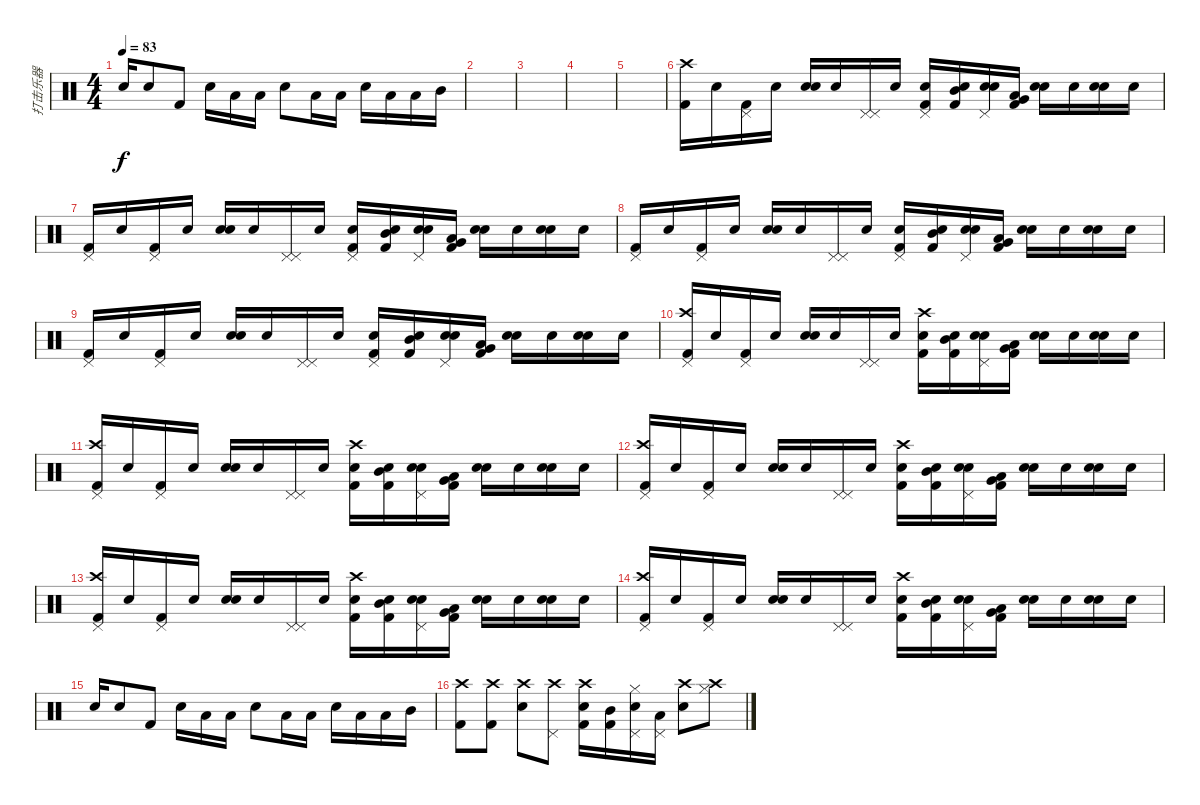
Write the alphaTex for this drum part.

\track ("打击乐器" "打击乐器") {instrument percussion}
\staff {score}
\articulation defaults
\ts (4 4)
\tempo 83
\clef neutral
\ks c "Snare (hit) 2".16{dy f} "Electric Snare (hit)".8 "Kick (hit) 2".8 "Electric Snare (hit)".16 "Low Floor Tom (hit)".16 "Low Floor Tom (hit)".16 "Electric Snare (hit)".8 "Low Tom (hit)".16 "Low Floor Tom (hit)".16 "Electric Snare (hit)".16 "Low Floor Tom (hit)".16 "Low Floor Tom (hit)".16 "Mid Tom (hit)".16
|
|
|
|
|
("Kick (hit) 2" "Crash high (hit)").16 "Snare (hit)".16 ("Kick (hit) 2" "Pedal Hi-Hat (hit)").16 "Snare (hit)".16 ("Snare (hit)" "Electric Snare (hit)").16 "Snare (hit)".16 ("Pedal Hi-Hat (hit)" "Pedal Hi-Hat (hit)").16 "Snare (hit)".16 ("Snare (hit)" "Pedal Hi-Hat (hit)" "Kick (hit) 2").16 ("Snare (hit)" "Mid Tom (hit)" "Kick (hit) 2").16 ("Snare (hit)" "Electric Snare (hit)" "Pedal Hi-Hat (hit)").16 ("Very Low Tom (hit)" "Kick (hit) 2" "Low Floor Tom (hit)").16 ("Snare (hit)" "Electric Snare (hit)").16 "Snare (hit)".16 ("Snare (hit)" "Electric Snare (hit)").16 "Snare (hit)".16 |
("Kick (hit) 2" "Pedal Hi-Hat (hit)").16 "Snare (hit)".16 ("Kick (hit) 2" "Pedal Hi-Hat (hit)").16 "Snare (hit)".16 ("Snare (hit)" "Electric Snare (hit)").16 "Snare (hit)".16 ("Pedal Hi-Hat (hit)" "Pedal Hi-Hat (hit)").16 "Snare (hit)".16 ("Snare (hit)" "Pedal Hi-Hat (hit)" "Kick (hit) 2").16 ("Snare (hit)" "Mid Tom (hit)" "Kick (hit) 2").16 ("Snare (hit)" "Electric Snare (hit)" "Pedal Hi-Hat (hit)").16 ("Very Low Tom (hit)" "Kick (hit) 2" "Low Floor Tom (hit)").16 ("Snare (hit)" "Electric Snare (hit)").16 "Snare (hit)".16 ("Snare (hit)" "Electric Snare (hit)").16 "Snare (hit)".16 |
("Kick (hit) 2" "Pedal Hi-Hat (hit)").16 "Snare (hit)".16 ("Kick (hit) 2" "Pedal Hi-Hat (hit)").16 "Snare (hit)".16 ("Snare (hit)" "Electric Snare (hit)").16 "Snare (hit)".16 ("Pedal Hi-Hat (hit)" "Pedal Hi-Hat (hit)").16 "Snare (hit)".16 ("Snare (hit)" "Pedal Hi-Hat (hit)" "Kick (hit) 2").16 ("Snare (hit)" "Mid Tom (hit)" "Kick (hit) 2").16 ("Snare (hit)" "Electric Snare (hit)" "Pedal Hi-Hat (hit)").16 ("Very Low Tom (hit)" "Kick (hit) 2" "Low Floor Tom (hit)").16 ("Snare (hit)" "Electric Snare (hit)").16 "Snare (hit)".16 ("Snare (hit)" "Electric Snare (hit)").16 "Snare (hit)".16 |
("Kick (hit) 2" "Pedal Hi-Hat (hit)").16 "Snare (hit)".16 ("Kick (hit) 2" "Pedal Hi-Hat (hit)").16 "Snare (hit)".16 ("Snare (hit)" "Electric Snare (hit)").16 "Snare (hit)".16 ("Pedal Hi-Hat (hit)" "Pedal Hi-Hat (hit)").16 "Snare (hit)".16 ("Snare (hit)" "Pedal Hi-Hat (hit)" "Kick (hit) 2").16 ("Snare (hit)" "Mid Tom (hit)" "Kick (hit) 2").16 ("Snare (hit)" "Electric Snare (hit)" "Pedal Hi-Hat (hit)").16 ("Very Low Tom (hit)" "Kick (hit) 2" "Low Floor Tom (hit)").16 ("Snare (hit)" "Electric Snare (hit)").16 "Snare (hit)".16 ("Snare (hit)" "Electric Snare (hit)").16 "Snare (hit)".16 |
("Crash high (hit)" "Kick (hit) 2" "Pedal Hi-Hat (hit)").16 "Snare (hit)".16 ("Kick (hit) 2" "Pedal Hi-Hat (hit)").16 "Snare (hit)".16 ("Snare (hit)" "Electric Snare (hit)").16 "Snare (hit)".16 ("Pedal Hi-Hat (hit)" "Pedal Hi-Hat (hit)").16 "Snare (hit)".16 ("Snare (hit)" "Crash high (hit)" "Kick (hit) 2").16 ("Snare (hit)" "Mid Tom (hit)" "Kick (hit) 2").16 ("Snare (hit)" "Electric Snare (hit)" "Pedal Hi-Hat (hit)").16 ("Very Low Tom (hit)" "Kick (hit) 2" "Low Floor Tom (hit)").16 ("Snare (hit)" "Electric Snare (hit)").16 "Snare (hit)".16 ("Snare (hit)" "Electric Snare (hit)").16 "Snare (hit)".16 |
("Crash high (hit)" "Kick (hit) 2" "Pedal Hi-Hat (hit)").16 "Snare (hit)".16 ("Kick (hit) 2" "Pedal Hi-Hat (hit)").16 "Snare (hit)".16 ("Snare (hit)" "Electric Snare (hit)").16 "Snare (hit)".16 ("Pedal Hi-Hat (hit)" "Pedal Hi-Hat (hit)").16 "Snare (hit)".16 ("Snare (hit)" "Crash high (hit)" "Kick (hit) 2").16 ("Snare (hit)" "Mid Tom (hit)" "Kick (hit) 2").16 ("Snare (hit)" "Electric Snare (hit)" "Pedal Hi-Hat (hit)").16 ("Very Low Tom (hit)" "Kick (hit) 2" "Low Floor Tom (hit)").16 ("Snare (hit)" "Electric Snare (hit)").16 "Snare (hit)".16 ("Snare (hit)" "Electric Snare (hit)").16 "Snare (hit)".16 |
("Crash high (hit)" "Kick (hit) 2" "Pedal Hi-Hat (hit)").16 "Snare (hit)".16 ("Kick (hit) 2" "Pedal Hi-Hat (hit)").16 "Snare (hit)".16 ("Snare (hit)" "Electric Snare (hit)").16 "Snare (hit)".16 ("Pedal Hi-Hat (hit)" "Pedal Hi-Hat (hit)").16 "Snare (hit)".16 ("Snare (hit)" "Crash high (hit)" "Kick (hit) 2").16 ("Snare (hit)" "Mid Tom (hit)" "Kick (hit) 2").16 ("Snare (hit)" "Electric Snare (hit)" "Pedal Hi-Hat (hit)").16 ("Very Low Tom (hit)" "Kick (hit) 2" "Low Floor Tom (hit)").16 ("Snare (hit)" "Electric Snare (hit)").16 "Snare (hit)".16 ("Snare (hit)" "Electric Snare (hit)").16 "Snare (hit)".16 |
("Crash high (hit)" "Kick (hit) 2" "Pedal Hi-Hat (hit)").16 "Snare (hit)".16 ("Kick (hit) 2" "Pedal Hi-Hat (hit)").16 "Snare (hit)".16 ("Snare (hit)" "Electric Snare (hit)").16 "Snare (hit)".16 ("Pedal Hi-Hat (hit)" "Pedal Hi-Hat (hit)").16 "Snare (hit)".16 ("Snare (hit)" "Crash high (hit)" "Kick (hit) 2").16 ("Snare (hit)" "Mid Tom (hit)" "Kick (hit) 2").16 ("Snare (hit)" "Electric Snare (hit)" "Pedal Hi-Hat (hit)").16 ("Very Low Tom (hit)" "Kick (hit) 2" "Low Floor Tom (hit)").16 ("Snare (hit)" "Electric Snare (hit)").16 "Snare (hit)".16 ("Snare (hit)" "Electric Snare (hit)").16 "Snare (hit)".16 |
("Crash high (hit)" "Kick (hit) 2" "Pedal Hi-Hat (hit)").16 "Snare (hit)".16 ("Kick (hit) 2" "Pedal Hi-Hat (hit)").16 "Snare (hit)".16 ("Snare (hit)" "Electric Snare (hit)").16 "Snare (hit)".16 ("Pedal Hi-Hat (hit)" "Pedal Hi-Hat (hit)").16 "Snare (hit)".16 ("Snare (hit)" "Crash high (hit)" "Kick (hit) 2").16 ("Snare (hit)" "Mid Tom (hit)" "Kick (hit) 2").16 ("Snare (hit)" "Electric Snare (hit)" "Pedal Hi-Hat (hit)").16 ("Very Low Tom (hit)" "Kick (hit) 2" "Low Floor Tom (hit)").16 ("Snare (hit)" "Electric Snare (hit)").16 "Snare (hit)".16 ("Snare (hit)" "Electric Snare (hit)").16 "Snare (hit)".16 |
"Snare (hit) 2".16 "Electric Snare (hit)".8 "Kick (hit) 2".8 "Electric Snare (hit)".16 "Low Floor Tom (hit)".16 "Low Floor Tom (hit)".16 "Electric Snare (hit)".8 "Low Tom (hit)".16 "Low Floor Tom (hit)".16 "Electric Snare (hit)".16 "Low Floor Tom (hit)".16 "Low Floor Tom (hit)".16 "Mid Tom (hit)".16 |
("Crash high (hit)" "Kick (hit) 2").8 ("Crash high (hit)" "Kick (hit) 2").8 ("Crash high (hit)" "Snare (hit) 2").8 ("Crash high (hit)" "Pedal Hi-Hat (hit)").8 ("Electric Snare (hit)" "Kick (hit) 2" "Crash high (hit)").16 ("Kick (hit) 2" "Mid Tom (hit)").16 ("Electric Snare (hit)" "Hi-Hat (closed)" "Pedal Hi-Hat (hit)").16 ("Pedal Hi-Hat (hit)" "Low Floor Tom (hit)").16 ("Crash high (hit)" "Snare (hit) 2").8 ("Crash high (hit)" "Hi-Hat (closed)").8
